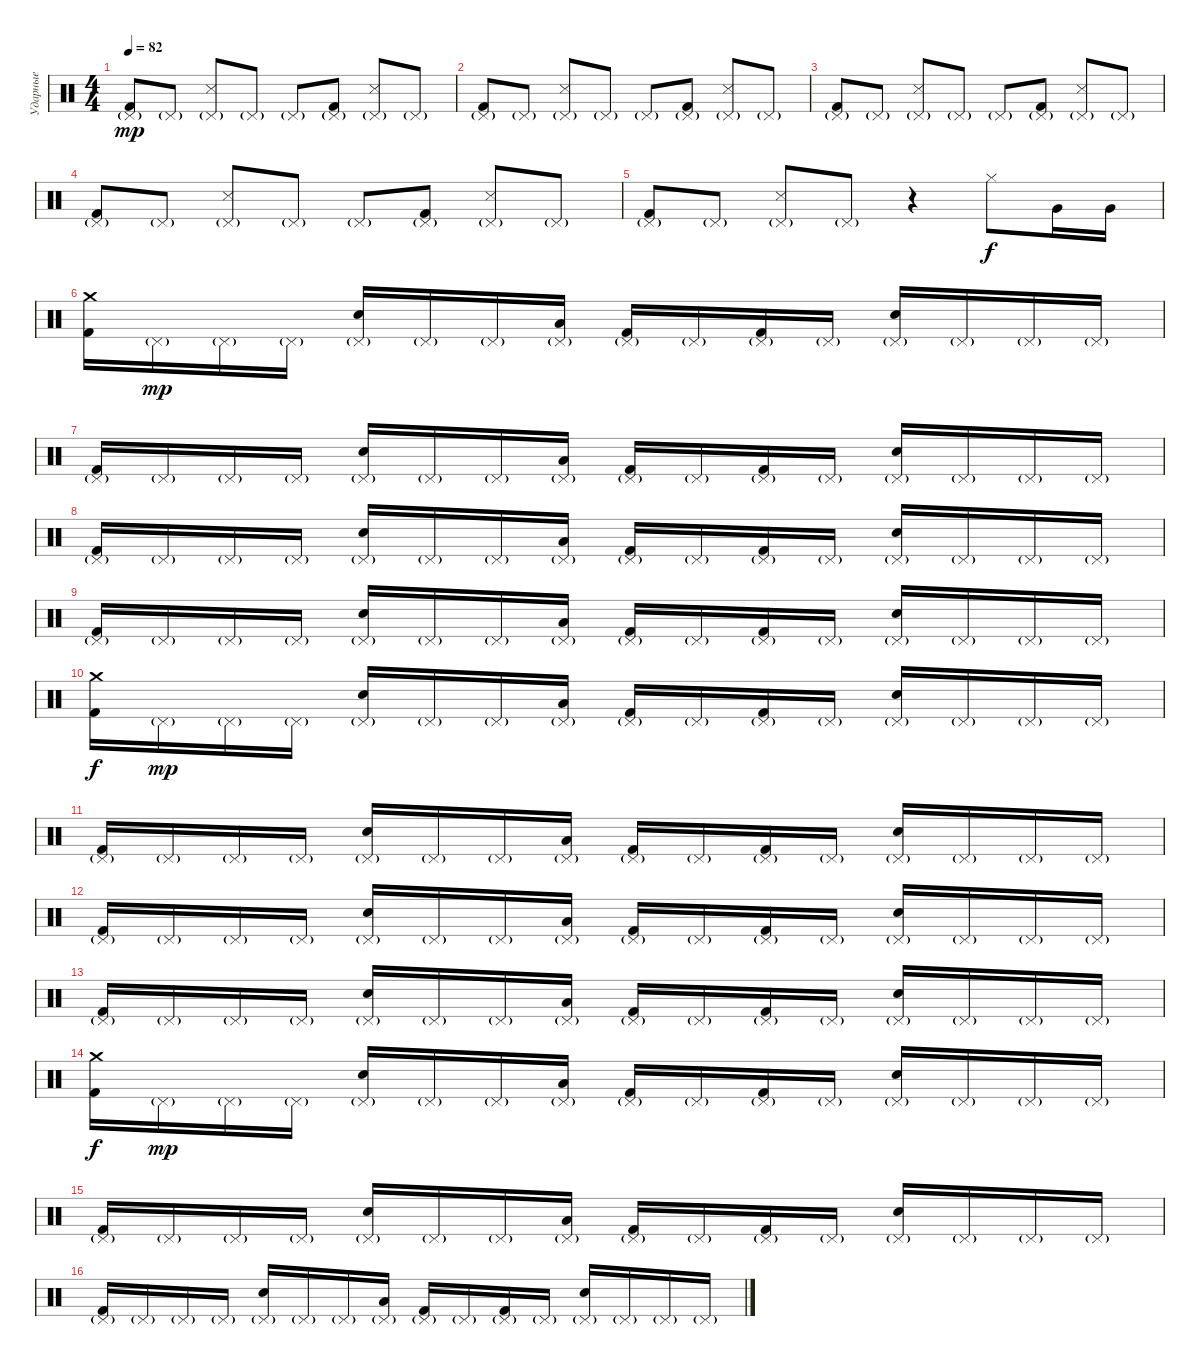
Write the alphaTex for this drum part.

\track ("Ударные" "Ударные") {instrument percussion}
\staff {score}
\articulation defaults
\ts (4 4)
\tempo 82
\clef neutral
\ks c
("Pedal Hi-Hat (hit)"{g} "Kick (hit) 2").8{dy mp} "Pedal Hi-Hat (hit)"{g}.8 ("Pedal Hi-Hat (hit)"{g} "Snare (side stick) 3").8 "Pedal Hi-Hat (hit)"{g}.8 "Pedal Hi-Hat (hit)"{g}.8 ("Pedal Hi-Hat (hit)"{g} "Kick (hit) 2").8 ("Pedal Hi-Hat (hit)"{g} "Snare (side stick) 3").8 "Pedal Hi-Hat (hit)"{g}.8 |
("Pedal Hi-Hat (hit)"{g} "Kick (hit) 2").8 "Pedal Hi-Hat (hit)"{g}.8 ("Pedal Hi-Hat (hit)"{g} "Snare (side stick) 3").8 "Pedal Hi-Hat (hit)"{g}.8 "Pedal Hi-Hat (hit)"{g}.8 ("Pedal Hi-Hat (hit)"{g} "Kick (hit) 2").8 ("Pedal Hi-Hat (hit)"{g} "Snare (side stick) 3").8 "Pedal Hi-Hat (hit)"{g}.8 |
("Pedal Hi-Hat (hit)"{g} "Kick (hit) 2").8 "Pedal Hi-Hat (hit)"{g}.8 ("Pedal Hi-Hat (hit)"{g} "Snare (side stick) 3").8 "Pedal Hi-Hat (hit)"{g}.8 "Pedal Hi-Hat (hit)"{g}.8 ("Pedal Hi-Hat (hit)"{g} "Kick (hit) 2").8 ("Pedal Hi-Hat (hit)"{g} "Snare (side stick) 3").8 "Pedal Hi-Hat (hit)"{g}.8 |
("Pedal Hi-Hat (hit)"{g} "Kick (hit) 2").8 "Pedal Hi-Hat (hit)"{g}.8 ("Pedal Hi-Hat (hit)"{g} "Snare (side stick) 3").8 "Pedal Hi-Hat (hit)"{g}.8 "Pedal Hi-Hat (hit)"{g}.8 ("Pedal Hi-Hat (hit)"{g} "Kick (hit) 2").8 ("Pedal Hi-Hat (hit)"{g} "Snare (side stick) 3").8 "Pedal Hi-Hat (hit)"{g}.8 |
("Pedal Hi-Hat (hit)"{g} "Kick (hit) 2").8 "Pedal Hi-Hat (hit)"{g}.8 ("Pedal Hi-Hat (hit)"{g} "Snare (side stick) 3").8 "Pedal Hi-Hat (hit)"{g}.8 r.4 "Hi-Hat (closed)".8{dy f} "Very Low Tom (hit)".16 "Very Low Tom (hit)".16 |
("Crash medium (hit)" "Kick (hit) 2").16 "Pedal Hi-Hat (hit)"{g}.16{dy mp} "Pedal Hi-Hat (hit)"{g}.16 "Pedal Hi-Hat (hit)"{g}.16 ("Pedal Hi-Hat (hit)"{g} "Electric Snare (hit)").16 "Pedal Hi-Hat (hit)"{g}.16 "Pedal Hi-Hat (hit)"{g}.16 ("Pedal Hi-Hat (hit)"{g} "Low Floor Tom (hit)").16 ("Pedal Hi-Hat (hit)"{g} "Kick (hit) 2").16 "Pedal Hi-Hat (hit)"{g}.16 ("Pedal Hi-Hat (hit)"{g} "Kick (hit) 2").16 "Pedal Hi-Hat (hit)"{g}.16 ("Pedal Hi-Hat (hit)"{g} "Electric Snare (hit)").16 "Pedal Hi-Hat (hit)"{g}.16 "Pedal Hi-Hat (hit)"{g}.16 "Pedal Hi-Hat (hit)"{g}.16 |
("Pedal Hi-Hat (hit)"{g} "Kick (hit) 2").16 "Pedal Hi-Hat (hit)"{g}.16 "Pedal Hi-Hat (hit)"{g}.16 "Pedal Hi-Hat (hit)"{g}.16 ("Pedal Hi-Hat (hit)"{g} "Electric Snare (hit)").16 "Pedal Hi-Hat (hit)"{g}.16 "Pedal Hi-Hat (hit)"{g}.16 ("Pedal Hi-Hat (hit)"{g} "Low Floor Tom (hit)").16 ("Pedal Hi-Hat (hit)"{g} "Kick (hit) 2").16 "Pedal Hi-Hat (hit)"{g}.16 ("Pedal Hi-Hat (hit)"{g} "Kick (hit) 2").16 "Pedal Hi-Hat (hit)"{g}.16 ("Pedal Hi-Hat (hit)"{g} "Electric Snare (hit)").16 "Pedal Hi-Hat (hit)"{g}.16 "Pedal Hi-Hat (hit)"{g}.16 "Pedal Hi-Hat (hit)"{g}.16 |
("Pedal Hi-Hat (hit)"{g} "Kick (hit) 2").16 "Pedal Hi-Hat (hit)"{g}.16 "Pedal Hi-Hat (hit)"{g}.16 "Pedal Hi-Hat (hit)"{g}.16 ("Pedal Hi-Hat (hit)"{g} "Electric Snare (hit)").16 "Pedal Hi-Hat (hit)"{g}.16 "Pedal Hi-Hat (hit)"{g}.16 ("Pedal Hi-Hat (hit)"{g} "Low Floor Tom (hit)").16 ("Pedal Hi-Hat (hit)"{g} "Kick (hit) 2").16 "Pedal Hi-Hat (hit)"{g}.16 ("Pedal Hi-Hat (hit)"{g} "Kick (hit) 2").16 "Pedal Hi-Hat (hit)"{g}.16 ("Pedal Hi-Hat (hit)"{g} "Electric Snare (hit)").16 "Pedal Hi-Hat (hit)"{g}.16 "Pedal Hi-Hat (hit)"{g}.16 "Pedal Hi-Hat (hit)"{g}.16 |
("Pedal Hi-Hat (hit)"{g} "Kick (hit) 2").16 "Pedal Hi-Hat (hit)"{g}.16 "Pedal Hi-Hat (hit)"{g}.16 "Pedal Hi-Hat (hit)"{g}.16 ("Pedal Hi-Hat (hit)"{g} "Electric Snare (hit)").16 "Pedal Hi-Hat (hit)"{g}.16 "Pedal Hi-Hat (hit)"{g}.16 ("Pedal Hi-Hat (hit)"{g} "Low Floor Tom (hit)").16 ("Pedal Hi-Hat (hit)"{g} "Kick (hit) 2").16 "Pedal Hi-Hat (hit)"{g}.16 ("Pedal Hi-Hat (hit)"{g} "Kick (hit) 2").16 "Pedal Hi-Hat (hit)"{g}.16 ("Pedal Hi-Hat (hit)"{g} "Electric Snare (hit)").16 "Pedal Hi-Hat (hit)"{g}.16 "Pedal Hi-Hat (hit)"{g}.16 "Pedal Hi-Hat (hit)"{g}.16 |
("Crash medium (hit)" "Kick (hit) 2").16{dy f} "Pedal Hi-Hat (hit)"{g}.16{dy mp} "Pedal Hi-Hat (hit)"{g}.16 "Pedal Hi-Hat (hit)"{g}.16 ("Pedal Hi-Hat (hit)"{g} "Electric Snare (hit)").16 "Pedal Hi-Hat (hit)"{g}.16 "Pedal Hi-Hat (hit)"{g}.16 ("Pedal Hi-Hat (hit)"{g} "Low Floor Tom (hit)").16 ("Pedal Hi-Hat (hit)"{g} "Kick (hit) 2").16 "Pedal Hi-Hat (hit)"{g}.16 ("Pedal Hi-Hat (hit)"{g} "Kick (hit) 2").16 "Pedal Hi-Hat (hit)"{g}.16 ("Pedal Hi-Hat (hit)"{g} "Electric Snare (hit)").16 "Pedal Hi-Hat (hit)"{g}.16 "Pedal Hi-Hat (hit)"{g}.16 "Pedal Hi-Hat (hit)"{g}.16 |
("Pedal Hi-Hat (hit)"{g} "Kick (hit) 2").16 "Pedal Hi-Hat (hit)"{g}.16 "Pedal Hi-Hat (hit)"{g}.16 "Pedal Hi-Hat (hit)"{g}.16 ("Pedal Hi-Hat (hit)"{g} "Electric Snare (hit)").16 "Pedal Hi-Hat (hit)"{g}.16 "Pedal Hi-Hat (hit)"{g}.16 ("Pedal Hi-Hat (hit)"{g} "Low Floor Tom (hit)").16 ("Pedal Hi-Hat (hit)"{g} "Kick (hit) 2").16 "Pedal Hi-Hat (hit)"{g}.16 ("Pedal Hi-Hat (hit)"{g} "Kick (hit) 2").16 "Pedal Hi-Hat (hit)"{g}.16 ("Pedal Hi-Hat (hit)"{g} "Electric Snare (hit)").16 "Pedal Hi-Hat (hit)"{g}.16 "Pedal Hi-Hat (hit)"{g}.16 "Pedal Hi-Hat (hit)"{g}.16 |
("Pedal Hi-Hat (hit)"{g} "Kick (hit) 2").16 "Pedal Hi-Hat (hit)"{g}.16 "Pedal Hi-Hat (hit)"{g}.16 "Pedal Hi-Hat (hit)"{g}.16 ("Pedal Hi-Hat (hit)"{g} "Electric Snare (hit)").16 "Pedal Hi-Hat (hit)"{g}.16 "Pedal Hi-Hat (hit)"{g}.16 ("Pedal Hi-Hat (hit)"{g} "Low Floor Tom (hit)").16 ("Pedal Hi-Hat (hit)"{g} "Kick (hit) 2").16 "Pedal Hi-Hat (hit)"{g}.16 ("Pedal Hi-Hat (hit)"{g} "Kick (hit) 2").16 "Pedal Hi-Hat (hit)"{g}.16 ("Pedal Hi-Hat (hit)"{g} "Electric Snare (hit)").16 "Pedal Hi-Hat (hit)"{g}.16 "Pedal Hi-Hat (hit)"{g}.16 "Pedal Hi-Hat (hit)"{g}.16 |
("Pedal Hi-Hat (hit)"{g} "Kick (hit) 2").16 "Pedal Hi-Hat (hit)"{g}.16 "Pedal Hi-Hat (hit)"{g}.16 "Pedal Hi-Hat (hit)"{g}.16 ("Pedal Hi-Hat (hit)"{g} "Electric Snare (hit)").16 "Pedal Hi-Hat (hit)"{g}.16 "Pedal Hi-Hat (hit)"{g}.16 ("Pedal Hi-Hat (hit)"{g} "Low Floor Tom (hit)").16 ("Pedal Hi-Hat (hit)"{g} "Kick (hit) 2").16 "Pedal Hi-Hat (hit)"{g}.16 ("Pedal Hi-Hat (hit)"{g} "Kick (hit) 2").16 "Pedal Hi-Hat (hit)"{g}.16 ("Pedal Hi-Hat (hit)"{g} "Electric Snare (hit)").16 "Pedal Hi-Hat (hit)"{g}.16 "Pedal Hi-Hat (hit)"{g}.16 "Pedal Hi-Hat (hit)"{g}.16 |
("Crash medium (hit)" "Kick (hit) 2").16{dy f} "Pedal Hi-Hat (hit)"{g}.16{dy mp} "Pedal Hi-Hat (hit)"{g}.16 "Pedal Hi-Hat (hit)"{g}.16 ("Pedal Hi-Hat (hit)"{g} "Electric Snare (hit)").16 "Pedal Hi-Hat (hit)"{g}.16 "Pedal Hi-Hat (hit)"{g}.16 ("Pedal Hi-Hat (hit)"{g} "Low Floor Tom (hit)").16 ("Pedal Hi-Hat (hit)"{g} "Kick (hit) 2").16 "Pedal Hi-Hat (hit)"{g}.16 ("Pedal Hi-Hat (hit)"{g} "Kick (hit) 2").16 "Pedal Hi-Hat (hit)"{g}.16 ("Pedal Hi-Hat (hit)"{g} "Electric Snare (hit)").16 "Pedal Hi-Hat (hit)"{g}.16 "Pedal Hi-Hat (hit)"{g}.16 "Pedal Hi-Hat (hit)"{g}.16 |
("Pedal Hi-Hat (hit)"{g} "Kick (hit) 2").16 "Pedal Hi-Hat (hit)"{g}.16 "Pedal Hi-Hat (hit)"{g}.16 "Pedal Hi-Hat (hit)"{g}.16 ("Pedal Hi-Hat (hit)"{g} "Electric Snare (hit)").16 "Pedal Hi-Hat (hit)"{g}.16 "Pedal Hi-Hat (hit)"{g}.16 ("Pedal Hi-Hat (hit)"{g} "Low Floor Tom (hit)").16 ("Pedal Hi-Hat (hit)"{g} "Kick (hit) 2").16 "Pedal Hi-Hat (hit)"{g}.16 ("Pedal Hi-Hat (hit)"{g} "Kick (hit) 2").16 "Pedal Hi-Hat (hit)"{g}.16 ("Pedal Hi-Hat (hit)"{g} "Electric Snare (hit)").16 "Pedal Hi-Hat (hit)"{g}.16 "Pedal Hi-Hat (hit)"{g}.16 "Pedal Hi-Hat (hit)"{g}.16 |
("Pedal Hi-Hat (hit)"{g} "Kick (hit) 2").16 "Pedal Hi-Hat (hit)"{g}.16 "Pedal Hi-Hat (hit)"{g}.16 "Pedal Hi-Hat (hit)"{g}.16 ("Pedal Hi-Hat (hit)"{g} "Electric Snare (hit)").16 "Pedal Hi-Hat (hit)"{g}.16 "Pedal Hi-Hat (hit)"{g}.16 ("Pedal Hi-Hat (hit)"{g} "Low Floor Tom (hit)").16 ("Pedal Hi-Hat (hit)"{g} "Kick (hit) 2").16 "Pedal Hi-Hat (hit)"{g}.16 ("Pedal Hi-Hat (hit)"{g} "Kick (hit) 2").16 "Pedal Hi-Hat (hit)"{g}.16 ("Pedal Hi-Hat (hit)"{g} "Electric Snare (hit)").16 "Pedal Hi-Hat (hit)"{g}.16 "Pedal Hi-Hat (hit)"{g}.16 "Pedal Hi-Hat (hit)"{g}.16
